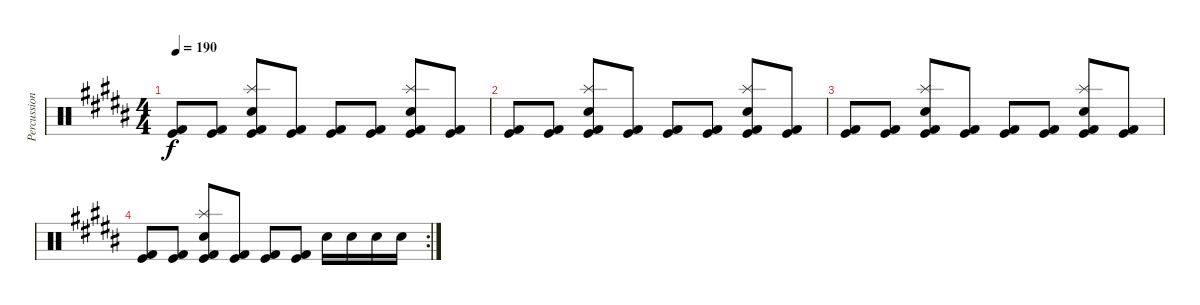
\track ("Percussion" "Percussion") {instrument percussion}
\staff {score}
\articulation defaults
\ts (4 4)
\tempo 190
\clef neutral
\ks g#minor
("Kick (hit)" "Kick (hit) 2").8{dy f} ("Kick (hit)" "Kick (hit) 2").8 ("Splash (hit)" "Snare (hit) 2" "Kick (hit)" "Kick (hit) 2").8 ("Kick (hit)" "Kick (hit) 2").8 ("Kick (hit)" "Kick (hit) 2").8 ("Kick (hit)" "Kick (hit) 2").8 ("Splash (hit)" "Snare (hit) 2" "Kick (hit)" "Kick (hit) 2").8 ("Kick (hit)" "Kick (hit) 2").8 |
("Kick (hit)" "Kick (hit) 2").8 ("Kick (hit)" "Kick (hit) 2").8 ("Splash (hit)" "Snare (hit) 2" "Kick (hit)" "Kick (hit) 2").8 ("Kick (hit)" "Kick (hit) 2").8 ("Kick (hit)" "Kick (hit) 2").8 ("Kick (hit)" "Kick (hit) 2").8 ("Splash (hit)" "Snare (hit) 2" "Kick (hit)" "Kick (hit) 2").8 ("Kick (hit)" "Kick (hit) 2").8 |
("Kick (hit)" "Kick (hit) 2").8 ("Kick (hit)" "Kick (hit) 2").8 ("Splash (hit)" "Snare (hit) 2" "Kick (hit)" "Kick (hit) 2").8 ("Kick (hit)" "Kick (hit) 2").8 ("Kick (hit)" "Kick (hit) 2").8 ("Kick (hit)" "Kick (hit) 2").8 ("Splash (hit)" "Snare (hit) 2" "Kick (hit)" "Kick (hit) 2").8 ("Kick (hit)" "Kick (hit) 2").8 |
\rc 2
("Kick (hit)" "Kick (hit) 2").8 ("Kick (hit)" "Kick (hit) 2").8 ("Splash (hit)" "Snare (hit) 2" "Kick (hit)" "Kick (hit) 2").8 ("Kick (hit)" "Kick (hit) 2").8 ("Kick (hit)" "Kick (hit) 2").8 ("Kick (hit)" "Kick (hit) 2").8 "Snare (hit) 2".16 "Snare (hit) 2".16 "Snare (hit) 2".16 "Snare (hit) 2".16
